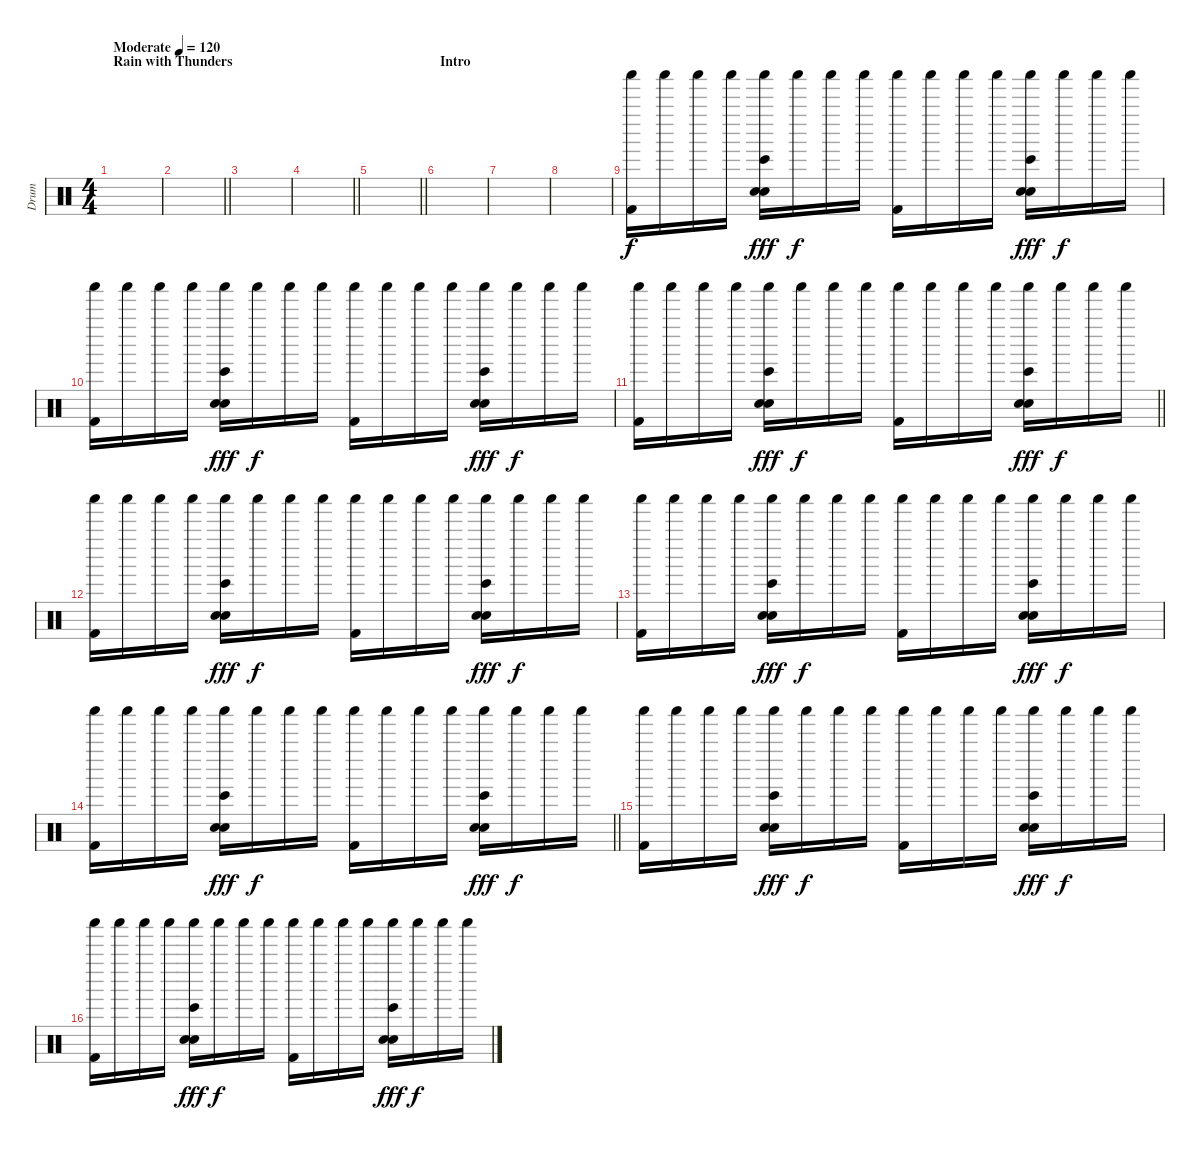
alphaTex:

\track ("Drum" "Drum") {instrument percussion}
\staff {score}
\articulation defaults
\ts (4 4)
\section ("" "Rain with Thunders")
\tempo (120 "Moderate")
\clef neutral
\ks c
|
\barLineRight lightlight
|
|
\barLineRight lightlight
|
\barLineRight lightlight
|
\section ("" "Intro ")
|
|
|
("Kick (hit) 2" "Shaker (hit)").16{volume 3} "Shaker (hit)".16 "Shaker (hit)".16 "Shaker (hit)".16 ("Electric Snare (hit)" "Shaker (hit)" "Hand Clap (hit)" "Bongo High (hit)").16{dy fff} "Shaker (hit)".16{dy f} "Shaker (hit)".16 "Shaker (hit)".16 ("Kick (hit) 2" "Shaker (hit)").16{volume 4} "Shaker (hit)".16 "Shaker (hit)".16 "Shaker (hit)".16 ("Electric Snare (hit)" "Shaker (hit)" "Hand Clap (hit)" "Bongo High (hit)").16{dy fff} "Shaker (hit)".16{dy f} "Shaker (hit)".16 "Shaker (hit)".16 |
("Kick (hit) 2" "Shaker (hit)").16{volume 5} "Shaker (hit)".16 "Shaker (hit)".16 "Shaker (hit)".16 ("Electric Snare (hit)" "Shaker (hit)" "Hand Clap (hit)" "Bongo High (hit)").16{dy fff} "Shaker (hit)".16{dy f} "Shaker (hit)".16 "Shaker (hit)".16 ("Kick (hit) 2" "Shaker (hit)").16{volume 6} "Shaker (hit)".16 "Shaker (hit)".16 "Shaker (hit)".16 ("Electric Snare (hit)" "Shaker (hit)" "Hand Clap (hit)" "Bongo High (hit)").16{dy fff} "Shaker (hit)".16{dy f} "Shaker (hit)".16 "Shaker (hit)".16 |
\barLineRight lightlight
("Kick (hit) 2" "Shaker (hit)").16{volume 7} "Shaker (hit)".16 "Shaker (hit)".16 "Shaker (hit)".16 ("Electric Snare (hit)" "Shaker (hit)" "Hand Clap (hit)" "Bongo High (hit)").16{dy fff} "Shaker (hit)".16{dy f} "Shaker (hit)".16 "Shaker (hit)".16 ("Kick (hit) 2" "Shaker (hit)").16{volume 8} "Shaker (hit)".16 "Shaker (hit)".16 "Shaker (hit)".16 ("Electric Snare (hit)" "Shaker (hit)" "Hand Clap (hit)" "Bongo High (hit)").16{dy fff} "Shaker (hit)".16{dy f} "Shaker (hit)".16 "Shaker (hit)".16 |
("Kick (hit) 2" "Shaker (hit)").16{volume 10} "Shaker (hit)".16 "Shaker (hit)".16 "Shaker (hit)".16 ("Electric Snare (hit)" "Shaker (hit)" "Hand Clap (hit)" "Bongo High (hit)").16{dy fff} "Shaker (hit)".16{dy f} "Shaker (hit)".16 "Shaker (hit)".16 ("Kick (hit) 2" "Shaker (hit)").16{volume 12} "Shaker (hit)".16 "Shaker (hit)".16 "Shaker (hit)".16 ("Electric Snare (hit)" "Shaker (hit)" "Hand Clap (hit)" "Bongo High (hit)").16{dy fff} "Shaker (hit)".16{dy f} "Shaker (hit)".16 "Shaker (hit)".16 |
("Kick (hit) 2" "Shaker (hit)").16{volume 14} "Shaker (hit)".16 "Shaker (hit)".16 "Shaker (hit)".16 ("Electric Snare (hit)" "Shaker (hit)" "Hand Clap (hit)" "Bongo High (hit)").16{dy fff} "Shaker (hit)".16{dy f} "Shaker (hit)".16 "Shaker (hit)".16 ("Kick (hit) 2" "Shaker (hit)").16{volume 16} "Shaker (hit)".16 "Shaker (hit)".16 "Shaker (hit)".16 ("Electric Snare (hit)" "Shaker (hit)" "Hand Clap (hit)" "Bongo High (hit)").16{dy fff} "Shaker (hit)".16{dy f} "Shaker (hit)".16 "Shaker (hit)".16 |
\barLineRight lightlight
("Kick (hit) 2" "Shaker (hit)").16 "Shaker (hit)".16 "Shaker (hit)".16 "Shaker (hit)".16 ("Electric Snare (hit)" "Shaker (hit)" "Hand Clap (hit)" "Bongo High (hit)").16{dy fff} "Shaker (hit)".16{dy f} "Shaker (hit)".16 "Shaker (hit)".16 ("Kick (hit) 2" "Shaker (hit)").16 "Shaker (hit)".16 "Shaker (hit)".16 "Shaker (hit)".16 ("Electric Snare (hit)" "Shaker (hit)" "Hand Clap (hit)" "Bongo High (hit)").16{dy fff} "Shaker (hit)".16{dy f} "Shaker (hit)".16 "Shaker (hit)".16 |
("Kick (hit) 2" "Shaker (hit)").16 "Shaker (hit)".16 "Shaker (hit)".16 "Shaker (hit)".16 ("Electric Snare (hit)" "Shaker (hit)" "Hand Clap (hit)" "Bongo High (hit)").16{dy fff} "Shaker (hit)".16{dy f} "Shaker (hit)".16 "Shaker (hit)".16 ("Kick (hit) 2" "Shaker (hit)").16 "Shaker (hit)".16 "Shaker (hit)".16 "Shaker (hit)".16 ("Electric Snare (hit)" "Shaker (hit)" "Hand Clap (hit)" "Bongo High (hit)").16{dy fff} "Shaker (hit)".16{dy f} "Shaker (hit)".16 "Shaker (hit)".16 |
("Kick (hit) 2" "Shaker (hit)").16 "Shaker (hit)".16 "Shaker (hit)".16 "Shaker (hit)".16 ("Electric Snare (hit)" "Shaker (hit)" "Hand Clap (hit)" "Bongo High (hit)").16{dy fff} "Shaker (hit)".16{dy f} "Shaker (hit)".16 "Shaker (hit)".16 ("Kick (hit) 2" "Shaker (hit)").16 "Shaker (hit)".16 "Shaker (hit)".16 "Shaker (hit)".16 ("Electric Snare (hit)" "Shaker (hit)" "Hand Clap (hit)" "Bongo High (hit)").16{dy fff} "Shaker (hit)".16{dy f} "Shaker (hit)".16 "Shaker (hit)".16
